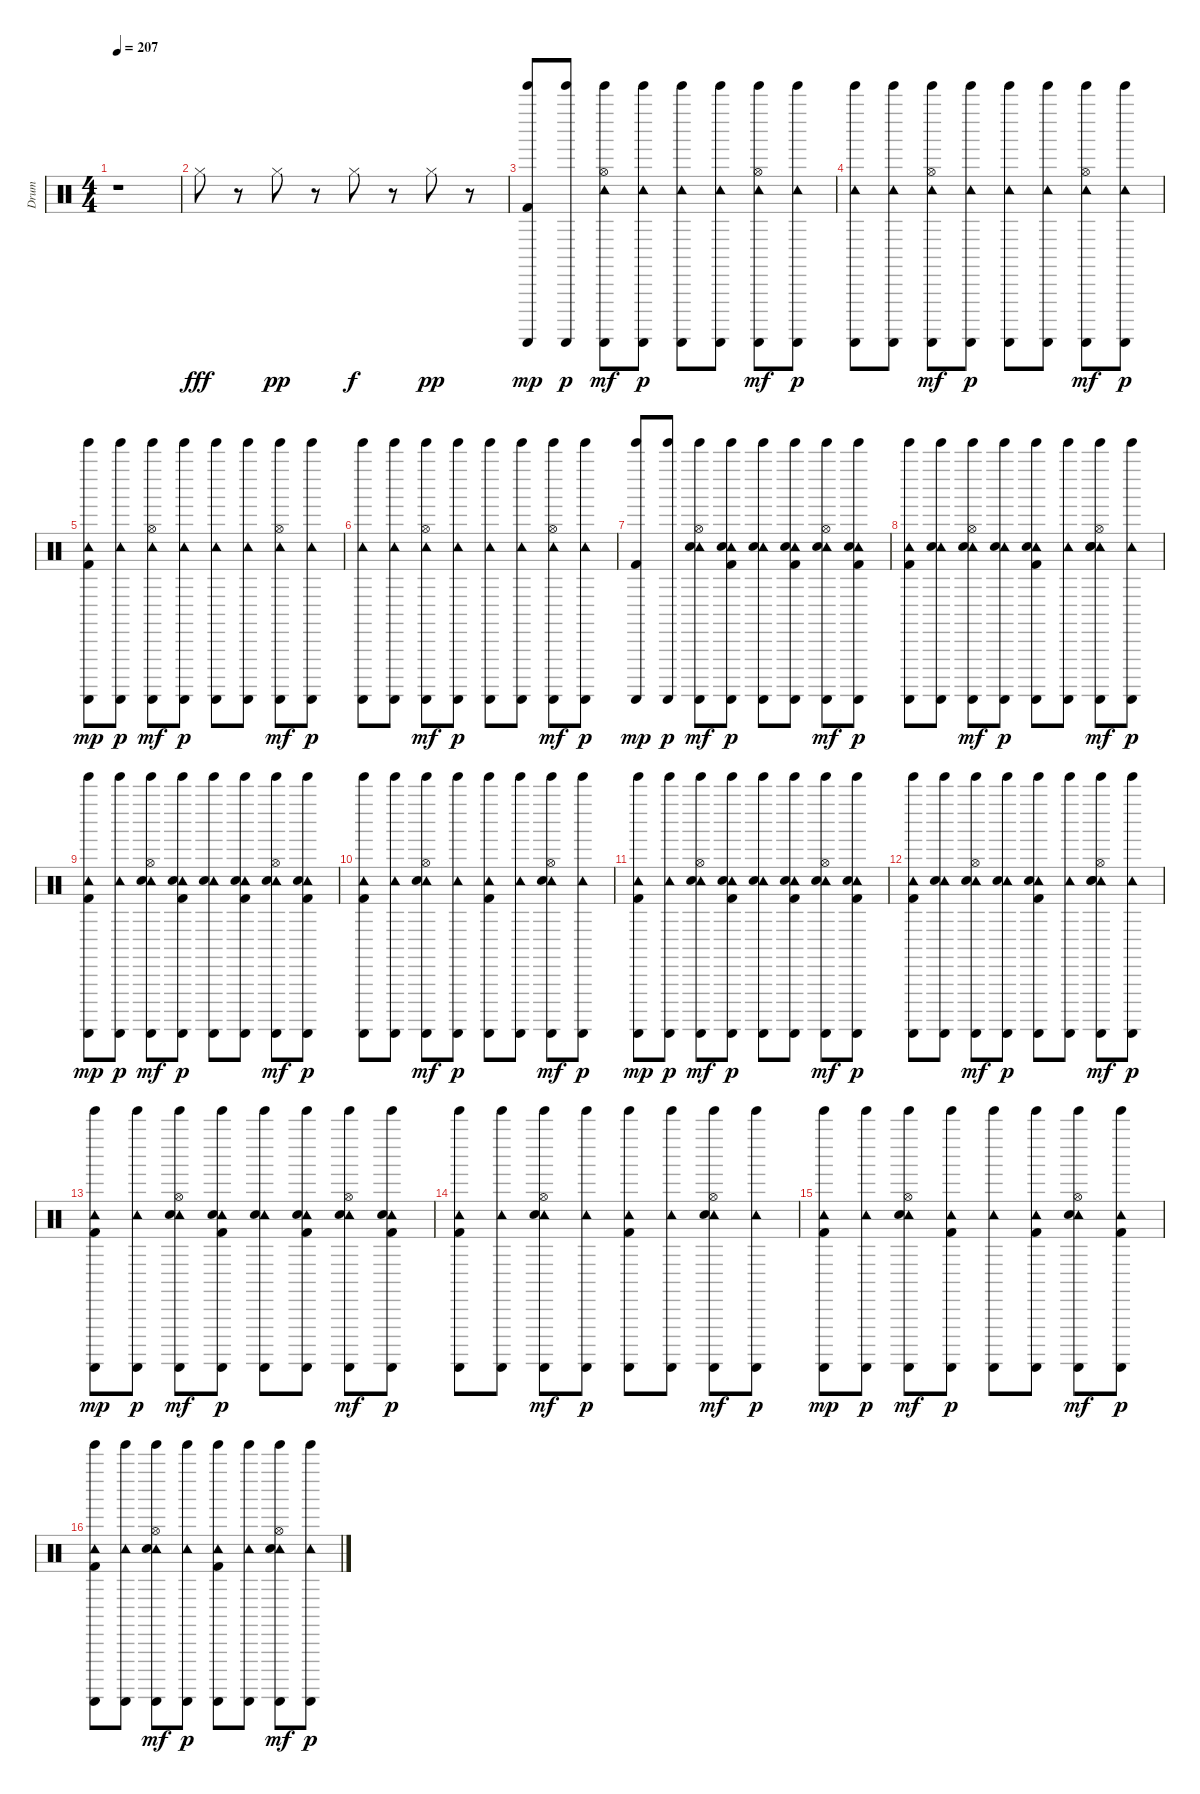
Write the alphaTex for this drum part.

\track ("Drum" "Drum") {instrument percussion}
\staff {score}
\articulation defaults
\ts (4 4)
\tempo 207
\clef neutral
\ks c
r.1{dy fff} |
"Hi-Hat (closed)".8 r.8 "Hi-Hat (closed)".8{dy pp} r.8 "Hi-Hat (closed)".8{dy f} r.8 "Hi-Hat (closed)".8{dy pp} r.8 |
("Kick (hit) 2" "Tinkle Bell (hit)" "Guiro (scrap-return)").8{dy mp} ("Tinkle Bell (hit)" "Guiro (scrap-return)").8{dy p} ("Tambourine (hit)" "Hi-Hat (open)" "Tinkle Bell (hit)" "Guiro (scrap-return)").8{dy mf} ("Tambourine (hit)" "Tinkle Bell (hit)" "Guiro (scrap-return)").8{dy p} ("Tambourine (hit)" "Tinkle Bell (hit)" "Guiro (scrap-return)").8 ("Tambourine (hit)" "Tinkle Bell (hit)" "Guiro (scrap-return)").8 ("Tambourine (hit)" "Hi-Hat (open)" "Tinkle Bell (hit)" "Guiro (scrap-return)").8{dy mf} ("Tambourine (hit)" "Tinkle Bell (hit)" "Guiro (scrap-return)").8{dy p} |
("Tambourine (hit)" "Tinkle Bell (hit)" "Guiro (scrap-return)").8 ("Tambourine (hit)" "Tinkle Bell (hit)" "Guiro (scrap-return)").8 ("Tambourine (hit)" "Hi-Hat (open)" "Tinkle Bell (hit)" "Guiro (scrap-return)").8{dy mf} ("Tambourine (hit)" "Tinkle Bell (hit)" "Guiro (scrap-return)").8{dy p} ("Tambourine (hit)" "Tinkle Bell (hit)" "Guiro (scrap-return)").8 ("Tambourine (hit)" "Tinkle Bell (hit)" "Guiro (scrap-return)").8 ("Tambourine (hit)" "Hi-Hat (open)" "Tinkle Bell (hit)" "Guiro (scrap-return)").8{dy mf} ("Tambourine (hit)" "Tinkle Bell (hit)" "Guiro (scrap-return)").8{dy p} |
("Tambourine (hit)" "Kick (hit) 2" "Tinkle Bell (hit)" "Guiro (scrap-return)").8{dy mp} ("Tambourine (hit)" "Tinkle Bell (hit)" "Guiro (scrap-return)").8{dy p} ("Tambourine (hit)" "Hi-Hat (open)" "Tinkle Bell (hit)" "Guiro (scrap-return)").8{dy mf} ("Tambourine (hit)" "Tinkle Bell (hit)" "Guiro (scrap-return)").8{dy p} ("Tambourine (hit)" "Tinkle Bell (hit)" "Guiro (scrap-return)").8 ("Tambourine (hit)" "Tinkle Bell (hit)" "Guiro (scrap-return)").8 ("Tambourine (hit)" "Hi-Hat (open)" "Tinkle Bell (hit)" "Guiro (scrap-return)").8{dy mf} ("Tambourine (hit)" "Tinkle Bell (hit)" "Guiro (scrap-return)").8{dy p} |
("Tambourine (hit)" "Tinkle Bell (hit)" "Guiro (scrap-return)").8 ("Tambourine (hit)" "Tinkle Bell (hit)" "Guiro (scrap-return)").8 ("Tambourine (hit)" "Hi-Hat (open)" "Tinkle Bell (hit)" "Guiro (scrap-return)").8{dy mf} ("Tambourine (hit)" "Tinkle Bell (hit)" "Guiro (scrap-return)").8{dy p} ("Tambourine (hit)" "Tinkle Bell (hit)" "Guiro (scrap-return)").8 ("Tambourine (hit)" "Tinkle Bell (hit)" "Guiro (scrap-return)").8 ("Tambourine (hit)" "Hi-Hat (open)" "Tinkle Bell (hit)" "Guiro (scrap-return)").8{dy mf} ("Tambourine (hit)" "Tinkle Bell (hit)" "Guiro (scrap-return)").8{dy p} |
("Kick (hit) 2" "Tinkle Bell (hit)" "Guiro (scrap-return)").8{dy mp} ("Tinkle Bell (hit)" "Guiro (scrap-return)").8{dy p} ("Tambourine (hit)" "Hi-Hat (open)" "Snare (hit) 2" "Tinkle Bell (hit)" "Guiro (scrap-return)").8{dy mf} ("Tambourine (hit)" "Kick (hit) 2" "Tinkle Bell (hit)" "Guiro (scrap-return)" "Hand Clap (hit)").8{dy p} ("Tambourine (hit)" "Tinkle Bell (hit)" "Guiro (scrap-return)" "Hand Clap (hit)").8 ("Tambourine (hit)" "Kick (hit) 2" "Tinkle Bell (hit)" "Guiro (scrap-return)" "Hand Clap (hit)").8 ("Tambourine (hit)" "Hi-Hat (open)" "Snare (hit) 2" "Tinkle Bell (hit)" "Guiro (scrap-return)").8{dy mf} ("Tambourine (hit)" "Kick (hit) 2" "Tinkle Bell (hit)" "Guiro (scrap-return)" "Hand Clap (hit)").8{dy p} |
("Tambourine (hit)" "Kick (hit) 2" "Tinkle Bell (hit)" "Guiro (scrap-return)").8 ("Tambourine (hit)" "Tinkle Bell (hit)" "Guiro (scrap-return)" "Hand Clap (hit)").8 ("Tambourine (hit)" "Hi-Hat (open)" "Snare (hit) 2" "Tinkle Bell (hit)" "Guiro (scrap-return)").8{dy mf} ("Tambourine (hit)" "Tinkle Bell (hit)" "Guiro (scrap-return)" "Hand Clap (hit)").8{dy p} ("Tambourine (hit)" "Kick (hit) 2" "Tinkle Bell (hit)" "Guiro (scrap-return)" "Hand Clap (hit)").8 ("Tambourine (hit)" "Tinkle Bell (hit)" "Guiro (scrap-return)").8 ("Tambourine (hit)" "Hi-Hat (open)" "Snare (hit) 2" "Tinkle Bell (hit)" "Guiro (scrap-return)" "Hand Clap (hit)").8{dy mf} ("Tambourine (hit)" "Tinkle Bell (hit)" "Guiro (scrap-return)").8{dy p} |
("Tambourine (hit)" "Kick (hit) 2" "Tinkle Bell (hit)" "Guiro (scrap-return)").8{dy mp} ("Tambourine (hit)" "Tinkle Bell (hit)" "Guiro (scrap-return)").8{dy p} ("Tambourine (hit)" "Hi-Hat (open)" "Snare (hit) 2" "Tinkle Bell (hit)" "Guiro (scrap-return)").8{dy mf} ("Tambourine (hit)" "Kick (hit) 2" "Tinkle Bell (hit)" "Guiro (scrap-return)" "Hand Clap (hit)").8{dy p} ("Tambourine (hit)" "Tinkle Bell (hit)" "Guiro (scrap-return)" "Hand Clap (hit)").8 ("Tambourine (hit)" "Kick (hit) 2" "Tinkle Bell (hit)" "Guiro (scrap-return)" "Hand Clap (hit)").8 ("Tambourine (hit)" "Hi-Hat (open)" "Snare (hit) 2" "Tinkle Bell (hit)" "Guiro (scrap-return)").8{dy mf} ("Tambourine (hit)" "Kick (hit) 2" "Tinkle Bell (hit)" "Guiro (scrap-return)" "Hand Clap (hit)").8{dy p} |
("Tambourine (hit)" "Kick (hit) 2" "Tinkle Bell (hit)" "Guiro (scrap-return)").8 ("Tambourine (hit)" "Tinkle Bell (hit)" "Guiro (scrap-return)").8 ("Tambourine (hit)" "Hi-Hat (open)" "Snare (hit) 2" "Tinkle Bell (hit)" "Guiro (scrap-return)").8{dy mf} ("Tambourine (hit)" "Tinkle Bell (hit)" "Guiro (scrap-return)").8{dy p} ("Tambourine (hit)" "Kick (hit) 2" "Tinkle Bell (hit)" "Guiro (scrap-return)").8 ("Tambourine (hit)" "Tinkle Bell (hit)" "Guiro (scrap-return)").8 ("Tambourine (hit)" "Hi-Hat (open)" "Snare (hit) 2" "Tinkle Bell (hit)" "Guiro (scrap-return)").8{dy mf} ("Tambourine (hit)" "Tinkle Bell (hit)" "Guiro (scrap-return)").8{dy p} |
("Tambourine (hit)" "Kick (hit) 2" "Tinkle Bell (hit)" "Guiro (scrap-return)").8{dy mp} ("Tambourine (hit)" "Tinkle Bell (hit)" "Guiro (scrap-return)").8{dy p} ("Tambourine (hit)" "Hi-Hat (open)" "Snare (hit) 2" "Tinkle Bell (hit)" "Guiro (scrap-return)").8{dy mf} ("Tambourine (hit)" "Kick (hit) 2" "Tinkle Bell (hit)" "Guiro (scrap-return)" "Hand Clap (hit)").8{dy p} ("Tambourine (hit)" "Tinkle Bell (hit)" "Guiro (scrap-return)" "Hand Clap (hit)").8 ("Tambourine (hit)" "Kick (hit) 2" "Tinkle Bell (hit)" "Guiro (scrap-return)" "Hand Clap (hit)").8 ("Tambourine (hit)" "Hi-Hat (open)" "Snare (hit) 2" "Tinkle Bell (hit)" "Guiro (scrap-return)").8{dy mf} ("Tambourine (hit)" "Kick (hit) 2" "Tinkle Bell (hit)" "Guiro (scrap-return)" "Hand Clap (hit)").8{dy p} |
("Tambourine (hit)" "Kick (hit) 2" "Tinkle Bell (hit)" "Guiro (scrap-return)").8 ("Tambourine (hit)" "Tinkle Bell (hit)" "Guiro (scrap-return)" "Hand Clap (hit)").8 ("Tambourine (hit)" "Hi-Hat (open)" "Snare (hit) 2" "Tinkle Bell (hit)" "Guiro (scrap-return)").8{dy mf} ("Tambourine (hit)" "Tinkle Bell (hit)" "Guiro (scrap-return)" "Hand Clap (hit)").8{dy p} ("Tambourine (hit)" "Kick (hit) 2" "Tinkle Bell (hit)" "Guiro (scrap-return)" "Hand Clap (hit)").8 ("Tambourine (hit)" "Tinkle Bell (hit)" "Guiro (scrap-return)").8 ("Tambourine (hit)" "Hi-Hat (open)" "Snare (hit) 2" "Tinkle Bell (hit)" "Guiro (scrap-return)" "Hand Clap (hit)").8{dy mf} ("Tambourine (hit)" "Tinkle Bell (hit)" "Guiro (scrap-return)").8{dy p} |
("Tambourine (hit)" "Kick (hit) 2" "Tinkle Bell (hit)" "Guiro (scrap-return)").8{dy mp} ("Tambourine (hit)" "Tinkle Bell (hit)" "Guiro (scrap-return)").8{dy p} ("Tambourine (hit)" "Hi-Hat (open)" "Snare (hit) 2" "Tinkle Bell (hit)" "Guiro (scrap-return)").8{dy mf} ("Tambourine (hit)" "Kick (hit) 2" "Tinkle Bell (hit)" "Guiro (scrap-return)" "Hand Clap (hit)").8{dy p} ("Tambourine (hit)" "Tinkle Bell (hit)" "Guiro (scrap-return)" "Hand Clap (hit)").8 ("Tambourine (hit)" "Kick (hit) 2" "Tinkle Bell (hit)" "Guiro (scrap-return)" "Hand Clap (hit)").8 ("Tambourine (hit)" "Hi-Hat (open)" "Snare (hit) 2" "Tinkle Bell (hit)" "Guiro (scrap-return)").8{dy mf} ("Tambourine (hit)" "Kick (hit) 2" "Tinkle Bell (hit)" "Guiro (scrap-return)" "Hand Clap (hit)").8{dy p} |
("Tambourine (hit)" "Kick (hit) 2" "Tinkle Bell (hit)" "Guiro (scrap-return)").8 ("Tambourine (hit)" "Tinkle Bell (hit)" "Guiro (scrap-return)").8 ("Tambourine (hit)" "Hi-Hat (open)" "Snare (hit) 2" "Tinkle Bell (hit)" "Guiro (scrap-return)").8{dy mf} ("Tambourine (hit)" "Tinkle Bell (hit)" "Guiro (scrap-return)").8{dy p} ("Tambourine (hit)" "Kick (hit) 2" "Tinkle Bell (hit)" "Guiro (scrap-return)").8 ("Tambourine (hit)" "Tinkle Bell (hit)" "Guiro (scrap-return)").8 ("Tambourine (hit)" "Hi-Hat (open)" "Snare (hit) 2" "Tinkle Bell (hit)" "Guiro (scrap-return)").8{dy mf} ("Tambourine (hit)" "Tinkle Bell (hit)" "Guiro (scrap-return)").8{dy p} |
("Tambourine (hit)" "Kick (hit) 2" "Tinkle Bell (hit)" "Guiro (scrap-return)").8{dy mp} ("Tambourine (hit)" "Tinkle Bell (hit)" "Guiro (scrap-return)").8{dy p} ("Tambourine (hit)" "Hi-Hat (open)" "Snare (hit) 2" "Tinkle Bell (hit)" "Guiro (scrap-return)").8{dy mf} ("Tambourine (hit)" "Kick (hit) 2" "Tinkle Bell (hit)" "Guiro (scrap-return)").8{dy p} ("Tambourine (hit)" "Tinkle Bell (hit)" "Guiro (scrap-return)").8 ("Tambourine (hit)" "Kick (hit) 2" "Tinkle Bell (hit)" "Guiro (scrap-return)").8 ("Tambourine (hit)" "Hi-Hat (open)" "Snare (hit) 2" "Tinkle Bell (hit)" "Guiro (scrap-return)").8{dy mf} ("Tambourine (hit)" "Kick (hit) 2" "Tinkle Bell (hit)" "Guiro (scrap-return)").8{dy p} |
("Tambourine (hit)" "Kick (hit) 2" "Tinkle Bell (hit)" "Guiro (scrap-return)").8 ("Tambourine (hit)" "Tinkle Bell (hit)" "Guiro (scrap-return)").8 ("Tambourine (hit)" "Hi-Hat (open)" "Snare (hit) 2" "Tinkle Bell (hit)" "Guiro (scrap-return)").8{dy mf} ("Tambourine (hit)" "Tinkle Bell (hit)" "Guiro (scrap-return)").8{dy p} ("Tambourine (hit)" "Kick (hit) 2" "Tinkle Bell (hit)" "Guiro (scrap-return)").8 ("Tambourine (hit)" "Tinkle Bell (hit)" "Guiro (scrap-return)").8 ("Tambourine (hit)" "Hi-Hat (open)" "Snare (hit) 2" "Tinkle Bell (hit)" "Guiro (scrap-return)").8{dy mf} ("Tambourine (hit)" "Tinkle Bell (hit)" "Guiro (scrap-return)").8{dy p}
